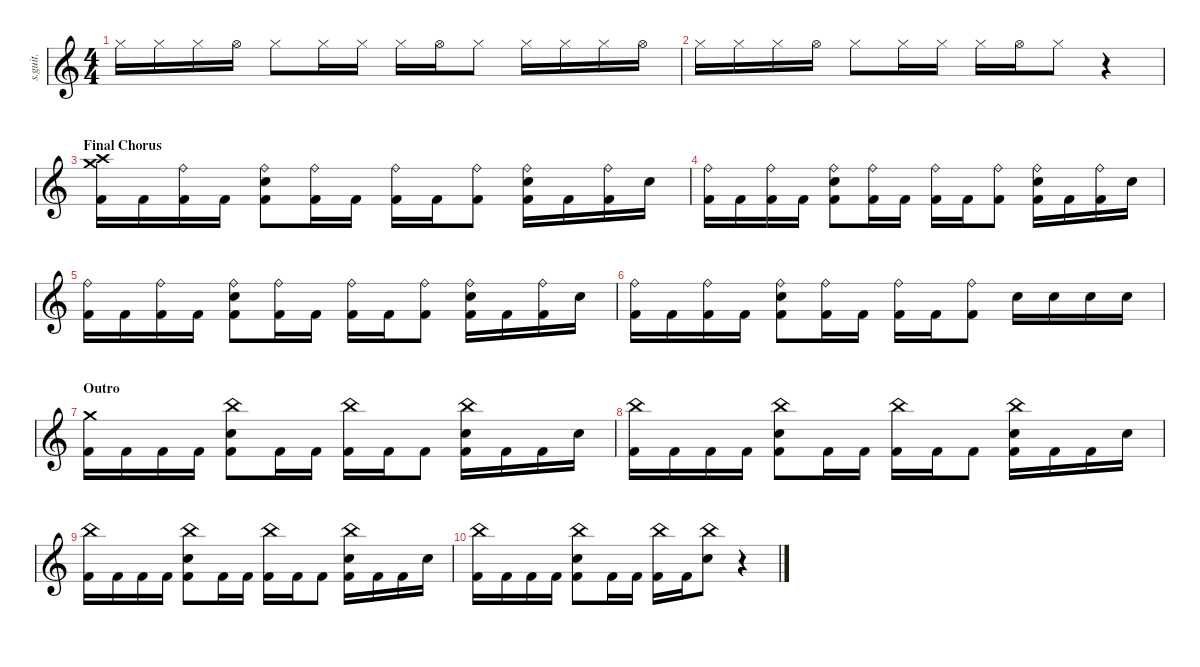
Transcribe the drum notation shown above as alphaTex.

\defaultSystemsLayout 4
\hideDynamics
\bracketExtendMode nobrackets
\track ("Mike Wengren" "s.guit.") {instrument percussion}
\staff {score}
\articulation defaults
\ts (4 4)
\tempo (90 hide)
\clef g2
\ks c "Hi-Hat (closed)".16{lyrics (0 "") lyrics (1 "") lyrics (2 "") lyrics (3 "") lyrics (4 "") dy ff} "Hi-Hat (closed)".16{lyrics (0 "") lyrics (1 "") lyrics (2 "") lyrics (3 "") lyrics (4 "")} "Hi-Hat (closed)".16{lyrics (0 "") lyrics (1 "") lyrics (2 "") lyrics (3 "") lyrics (4 "")} "Hi-Hat (open)".16{lyrics (0 "") lyrics (1 "") lyrics (2 "") lyrics (3 "") lyrics (4 "")} "Hi-Hat (closed)".8{lyrics (0 "") lyrics (1 "") lyrics (2 "") lyrics (3 "") lyrics (4 "")} "Hi-Hat (closed)".16{lyrics (0 "") lyrics (1 "") lyrics (2 "") lyrics (3 "") lyrics (4 "")} "Hi-Hat (closed)".16{lyrics (0 "") lyrics (1 "") lyrics (2 "") lyrics (3 "") lyrics (4 "")} "Hi-Hat (closed)".16{lyrics (0 "") lyrics (1 "") lyrics (2 "") lyrics (3 "") lyrics (4 "")} "Hi-Hat (open)".16{lyrics (0 "") lyrics (1 "") lyrics (2 "") lyrics (3 "") lyrics (4 "")} "Hi-Hat (closed)".8{lyrics (0 "") lyrics (1 "") lyrics (2 "") lyrics (3 "") lyrics (4 "")} "Hi-Hat (closed)".16{lyrics (0 "") lyrics (1 "") lyrics (2 "") lyrics (3 "") lyrics (4 "")} "Hi-Hat (closed)".16{lyrics (0 "") lyrics (1 "") lyrics (2 "") lyrics (3 "") lyrics (4 "")} "Hi-Hat (closed)".16{lyrics (0 "") lyrics (1 "") lyrics (2 "") lyrics (3 "") lyrics (4 "")} "Hi-Hat (open)".16{lyrics (0 "") lyrics (1 "") lyrics (2 "") lyrics (3 "") lyrics (4 "")}
|
"Hi-Hat (closed)".16{lyrics (0 "") lyrics (1 "") lyrics (2 "") lyrics (3 "") lyrics (4 "")} "Hi-Hat (closed)".16{lyrics (0 "") lyrics (1 "") lyrics (2 "") lyrics (3 "") lyrics (4 "")} "Hi-Hat (closed)".16{lyrics (0 "") lyrics (1 "") lyrics (2 "") lyrics (3 "") lyrics (4 "")} "Hi-Hat (open)".16{lyrics (0 "") lyrics (1 "") lyrics (2 "") lyrics (3 "") lyrics (4 "")} "Hi-Hat (closed)".8{lyrics (0 "") lyrics (1 "") lyrics (2 "") lyrics (3 "") lyrics (4 "")} "Hi-Hat (closed)".16{lyrics (0 "") lyrics (1 "") lyrics (2 "") lyrics (3 "") lyrics (4 "")} "Hi-Hat (closed)".16{lyrics (0 "") lyrics (1 "") lyrics (2 "") lyrics (3 "") lyrics (4 "")} "Hi-Hat (closed)".16{lyrics (0 "") lyrics (1 "") lyrics (2 "") lyrics (3 "") lyrics (4 "")} "Hi-Hat (open)".16{lyrics (0 "") lyrics (1 "") lyrics (2 "") lyrics (3 "") lyrics (4 "")} "Hi-Hat (closed)".8{lyrics (0 "") lyrics (1 "") lyrics (2 "") lyrics (3 "") lyrics (4 "")} r.4 |
\section ("" "Final Chorus")
("Crash high (hit)" "Kick (hit) 2" "Crash medium (hit)").16{lyrics (0 "") lyrics (1 "") lyrics (2 "") lyrics (3 "") lyrics (4 "")} "Kick (hit) 2".16{lyrics (0 "") lyrics (1 "") lyrics (2 "") lyrics (3 "") lyrics (4 "")} ("Ride (bell)" "Kick (hit) 2").16{lyrics (0 "") lyrics (1 "") lyrics (2 "") lyrics (3 "") lyrics (4 "")} "Kick (hit) 2".16{lyrics (0 "") lyrics (1 "") lyrics (2 "") lyrics (3 "") lyrics (4 "")} ("Ride (bell)" "Kick (hit) 2" "Snare (hit) 2").8{lyrics (0 "") lyrics (1 "") lyrics (2 "") lyrics (3 "") lyrics (4 "")} ("Ride (bell)" "Kick (hit) 2").16{lyrics (0 "") lyrics (1 "") lyrics (2 "") lyrics (3 "") lyrics (4 "")} "Kick (hit) 2".16{lyrics (0 "") lyrics (1 "") lyrics (2 "") lyrics (3 "") lyrics (4 "")} ("Ride (bell)" "Kick (hit) 2").16{lyrics (0 "") lyrics (1 "") lyrics (2 "") lyrics (3 "") lyrics (4 "")} "Kick (hit) 2".16{lyrics (0 "") lyrics (1 "") lyrics (2 "") lyrics (3 "") lyrics (4 "")} ("Ride (bell)" "Kick (hit) 2").8{lyrics (0 "") lyrics (1 "") lyrics (2 "") lyrics (3 "") lyrics (4 "")} ("Ride (bell)" "Kick (hit) 2" "Snare (hit) 2").16{lyrics (0 "") lyrics (1 "") lyrics (2 "") lyrics (3 "") lyrics (4 "")} "Kick (hit) 2".16{lyrics (0 "") lyrics (1 "") lyrics (2 "") lyrics (3 "") lyrics (4 "")} ("Ride (bell)" "Kick (hit) 2").16{lyrics (0 "") lyrics (1 "") lyrics (2 "") lyrics (3 "") lyrics (4 "")} "Snare (hit) 2".16{lyrics (0 "") lyrics (1 "") lyrics (2 "") lyrics (3 "") lyrics (4 "")} |
("Kick (hit) 2" "Ride (bell)").16{lyrics (0 "") lyrics (1 "") lyrics (2 "") lyrics (3 "") lyrics (4 "")} "Kick (hit) 2".16{lyrics (0 "") lyrics (1 "") lyrics (2 "") lyrics (3 "") lyrics (4 "")} ("Ride (bell)" "Kick (hit) 2").16{lyrics (0 "") lyrics (1 "") lyrics (2 "") lyrics (3 "") lyrics (4 "")} "Kick (hit) 2".16{lyrics (0 "") lyrics (1 "") lyrics (2 "") lyrics (3 "") lyrics (4 "")} ("Ride (bell)" "Kick (hit) 2" "Snare (hit) 2").8{lyrics (0 "") lyrics (1 "") lyrics (2 "") lyrics (3 "") lyrics (4 "")} ("Ride (bell)" "Kick (hit) 2").16{lyrics (0 "") lyrics (1 "") lyrics (2 "") lyrics (3 "") lyrics (4 "")} "Kick (hit) 2".16{lyrics (0 "") lyrics (1 "") lyrics (2 "") lyrics (3 "") lyrics (4 "")} ("Ride (bell)" "Kick (hit) 2").16{lyrics (0 "") lyrics (1 "") lyrics (2 "") lyrics (3 "") lyrics (4 "")} "Kick (hit) 2".16{lyrics (0 "") lyrics (1 "") lyrics (2 "") lyrics (3 "") lyrics (4 "")} ("Ride (bell)" "Kick (hit) 2").8{lyrics (0 "") lyrics (1 "") lyrics (2 "") lyrics (3 "") lyrics (4 "")} ("Ride (bell)" "Kick (hit) 2" "Snare (hit) 2").16{lyrics (0 "") lyrics (1 "") lyrics (2 "") lyrics (3 "") lyrics (4 "")} "Kick (hit) 2".16{lyrics (0 "") lyrics (1 "") lyrics (2 "") lyrics (3 "") lyrics (4 "")} ("Ride (bell)" "Kick (hit) 2").16{lyrics (0 "") lyrics (1 "") lyrics (2 "") lyrics (3 "") lyrics (4 "")} "Snare (hit) 2".16{lyrics (0 "") lyrics (1 "") lyrics (2 "") lyrics (3 "") lyrics (4 "")} |
("Kick (hit) 2" "Ride (bell)").16{lyrics (0 "") lyrics (1 "") lyrics (2 "") lyrics (3 "") lyrics (4 "")} "Kick (hit) 2".16{lyrics (0 "") lyrics (1 "") lyrics (2 "") lyrics (3 "") lyrics (4 "")} ("Ride (bell)" "Kick (hit) 2").16{lyrics (0 "") lyrics (1 "") lyrics (2 "") lyrics (3 "") lyrics (4 "")} "Kick (hit) 2".16{lyrics (0 "") lyrics (1 "") lyrics (2 "") lyrics (3 "") lyrics (4 "")} ("Ride (bell)" "Kick (hit) 2" "Snare (hit) 2").8{lyrics (0 "") lyrics (1 "") lyrics (2 "") lyrics (3 "") lyrics (4 "")} ("Ride (bell)" "Kick (hit) 2").16{lyrics (0 "") lyrics (1 "") lyrics (2 "") lyrics (3 "") lyrics (4 "")} "Kick (hit) 2".16{lyrics (0 "") lyrics (1 "") lyrics (2 "") lyrics (3 "") lyrics (4 "")} ("Ride (bell)" "Kick (hit) 2").16{lyrics (0 "") lyrics (1 "") lyrics (2 "") lyrics (3 "") lyrics (4 "")} "Kick (hit) 2".16{lyrics (0 "") lyrics (1 "") lyrics (2 "") lyrics (3 "") lyrics (4 "")} ("Ride (bell)" "Kick (hit) 2").8{lyrics (0 "") lyrics (1 "") lyrics (2 "") lyrics (3 "") lyrics (4 "")} ("Ride (bell)" "Kick (hit) 2" "Snare (hit) 2").16{lyrics (0 "") lyrics (1 "") lyrics (2 "") lyrics (3 "") lyrics (4 "")} "Kick (hit) 2".16{lyrics (0 "") lyrics (1 "") lyrics (2 "") lyrics (3 "") lyrics (4 "")} ("Ride (bell)" "Kick (hit) 2").16{lyrics (0 "") lyrics (1 "") lyrics (2 "") lyrics (3 "") lyrics (4 "")} "Snare (hit) 2".16{lyrics (0 "") lyrics (1 "") lyrics (2 "") lyrics (3 "") lyrics (4 "")} |
("Kick (hit) 2" "Ride (bell)").16{lyrics (0 "") lyrics (1 "") lyrics (2 "") lyrics (3 "") lyrics (4 "")} "Kick (hit) 2".16{lyrics (0 "") lyrics (1 "") lyrics (2 "") lyrics (3 "") lyrics (4 "")} ("Ride (bell)" "Kick (hit) 2").16{lyrics (0 "") lyrics (1 "") lyrics (2 "") lyrics (3 "") lyrics (4 "")} "Kick (hit) 2".16{lyrics (0 "") lyrics (1 "") lyrics (2 "") lyrics (3 "") lyrics (4 "")} ("Ride (bell)" "Kick (hit) 2" "Snare (hit) 2").8{lyrics (0 "") lyrics (1 "") lyrics (2 "") lyrics (3 "") lyrics (4 "")} ("Ride (bell)" "Kick (hit) 2").16{lyrics (0 "") lyrics (1 "") lyrics (2 "") lyrics (3 "") lyrics (4 "")} "Kick (hit) 2".16{lyrics (0 "") lyrics (1 "") lyrics (2 "") lyrics (3 "") lyrics (4 "")} ("Ride (bell)" "Kick (hit) 2").16{lyrics (0 "") lyrics (1 "") lyrics (2 "") lyrics (3 "") lyrics (4 "")} "Kick (hit) 2".16{lyrics (0 "") lyrics (1 "") lyrics (2 "") lyrics (3 "") lyrics (4 "")} ("Ride (bell)" "Kick (hit) 2").8{lyrics (0 "") lyrics (1 "") lyrics (2 "") lyrics (3 "") lyrics (4 "")} "Snare (hit) 2".16{lyrics (0 "") lyrics (1 "") lyrics (2 "") lyrics (3 "") lyrics (4 "")} "Snare (hit) 2".16{lyrics (0 "") lyrics (1 "") lyrics (2 "") lyrics (3 "") lyrics (4 "")} "Snare (hit) 2".16{lyrics (0 "") lyrics (1 "") lyrics (2 "") lyrics (3 "") lyrics (4 "")} "Snare (hit) 2".16{lyrics (0 "") lyrics (1 "") lyrics (2 "") lyrics (3 "") lyrics (4 "")} |
\section ("" "Outro")
("Kick (hit) 2" "Crash medium (hit)").16{lyrics (0 "") lyrics (1 "") lyrics (2 "") lyrics (3 "") lyrics (4 "")} "Kick (hit) 2".16{lyrics (0 "") lyrics (1 "") lyrics (2 "") lyrics (3 "") lyrics (4 "")} "Kick (hit) 2".16{lyrics (0 "") lyrics (1 "") lyrics (2 "") lyrics (3 "") lyrics (4 "")} "Kick (hit) 2".16{lyrics (0 "") lyrics (1 "") lyrics (2 "") lyrics (3 "") lyrics (4 "")} ("China (hit)" "Kick (hit) 2" "Snare (hit) 2").8{lyrics (0 "") lyrics (1 "") lyrics (2 "") lyrics (3 "") lyrics (4 "")} "Kick (hit) 2".16{lyrics (0 "") lyrics (1 "") lyrics (2 "") lyrics (3 "") lyrics (4 "")} "Kick (hit) 2".16{lyrics (0 "") lyrics (1 "") lyrics (2 "") lyrics (3 "") lyrics (4 "")} ("China (hit)" "Kick (hit) 2").16{lyrics (0 "") lyrics (1 "") lyrics (2 "") lyrics (3 "") lyrics (4 "")} "Kick (hit) 2".16{lyrics (0 "") lyrics (1 "") lyrics (2 "") lyrics (3 "") lyrics (4 "")} "Kick (hit) 2".8{lyrics (0 "") lyrics (1 "") lyrics (2 "") lyrics (3 "") lyrics (4 "")} ("China (hit)" "Kick (hit) 2" "Snare (hit) 2").16{lyrics (0 "") lyrics (1 "") lyrics (2 "") lyrics (3 "") lyrics (4 "")} "Kick (hit) 2".16{lyrics (0 "") lyrics (1 "") lyrics (2 "") lyrics (3 "") lyrics (4 "")} "Kick (hit) 2".16{lyrics (0 "") lyrics (1 "") lyrics (2 "") lyrics (3 "") lyrics (4 "")} "Snare (hit) 2".16{lyrics (0 "") lyrics (1 "") lyrics (2 "") lyrics (3 "") lyrics (4 "")} |
("China (hit)" "Kick (hit) 2").16{lyrics (0 "") lyrics (1 "") lyrics (2 "") lyrics (3 "") lyrics (4 "")} "Kick (hit) 2".16{lyrics (0 "") lyrics (1 "") lyrics (2 "") lyrics (3 "") lyrics (4 "")} "Kick (hit) 2".16{lyrics (0 "") lyrics (1 "") lyrics (2 "") lyrics (3 "") lyrics (4 "")} "Kick (hit) 2".16{lyrics (0 "") lyrics (1 "") lyrics (2 "") lyrics (3 "") lyrics (4 "")} ("China (hit)" "Kick (hit) 2" "Snare (hit) 2").8{lyrics (0 "") lyrics (1 "") lyrics (2 "") lyrics (3 "") lyrics (4 "")} "Kick (hit) 2".16{lyrics (0 "") lyrics (1 "") lyrics (2 "") lyrics (3 "") lyrics (4 "")} "Kick (hit) 2".16{lyrics (0 "") lyrics (1 "") lyrics (2 "") lyrics (3 "") lyrics (4 "")} ("China (hit)" "Kick (hit) 2").16{lyrics (0 "") lyrics (1 "") lyrics (2 "") lyrics (3 "") lyrics (4 "")} "Kick (hit) 2".16{lyrics (0 "") lyrics (1 "") lyrics (2 "") lyrics (3 "") lyrics (4 "")} "Kick (hit) 2".8{lyrics (0 "") lyrics (1 "") lyrics (2 "") lyrics (3 "") lyrics (4 "")} ("China (hit)" "Kick (hit) 2" "Snare (hit) 2").16{lyrics (0 "") lyrics (1 "") lyrics (2 "") lyrics (3 "") lyrics (4 "")} "Kick (hit) 2".16{lyrics (0 "") lyrics (1 "") lyrics (2 "") lyrics (3 "") lyrics (4 "")} "Kick (hit) 2".16{lyrics (0 "") lyrics (1 "") lyrics (2 "") lyrics (3 "") lyrics (4 "")} "Snare (hit) 2".16{lyrics (0 "") lyrics (1 "") lyrics (2 "") lyrics (3 "") lyrics (4 "")} |
("China (hit)" "Kick (hit) 2").16{lyrics (0 "") lyrics (1 "") lyrics (2 "") lyrics (3 "") lyrics (4 "")} "Kick (hit) 2".16{lyrics (0 "") lyrics (1 "") lyrics (2 "") lyrics (3 "") lyrics (4 "")} "Kick (hit) 2".16{lyrics (0 "") lyrics (1 "") lyrics (2 "") lyrics (3 "") lyrics (4 "")} "Kick (hit) 2".16{lyrics (0 "") lyrics (1 "") lyrics (2 "") lyrics (3 "") lyrics (4 "")} ("China (hit)" "Kick (hit) 2" "Snare (hit) 2").8{lyrics (0 "") lyrics (1 "") lyrics (2 "") lyrics (3 "") lyrics (4 "")} "Kick (hit) 2".16{lyrics (0 "") lyrics (1 "") lyrics (2 "") lyrics (3 "") lyrics (4 "")} "Kick (hit) 2".16{lyrics (0 "") lyrics (1 "") lyrics (2 "") lyrics (3 "") lyrics (4 "")} ("China (hit)" "Kick (hit) 2").16{lyrics (0 "") lyrics (1 "") lyrics (2 "") lyrics (3 "") lyrics (4 "")} "Kick (hit) 2".16{lyrics (0 "") lyrics (1 "") lyrics (2 "") lyrics (3 "") lyrics (4 "")} "Kick (hit) 2".8{lyrics (0 "") lyrics (1 "") lyrics (2 "") lyrics (3 "") lyrics (4 "")} ("China (hit)" "Kick (hit) 2" "Snare (hit) 2").16{lyrics (0 "") lyrics (1 "") lyrics (2 "") lyrics (3 "") lyrics (4 "")} "Kick (hit) 2".16{lyrics (0 "") lyrics (1 "") lyrics (2 "") lyrics (3 "") lyrics (4 "")} "Kick (hit) 2".16{lyrics (0 "") lyrics (1 "") lyrics (2 "") lyrics (3 "") lyrics (4 "")} "Snare (hit) 2".16{lyrics (0 "") lyrics (1 "") lyrics (2 "") lyrics (3 "") lyrics (4 "")} |
("China (hit)" "Kick (hit) 2").16{lyrics (0 "") lyrics (1 "") lyrics (2 "") lyrics (3 "") lyrics (4 "")} "Kick (hit) 2".16{lyrics (0 "") lyrics (1 "") lyrics (2 "") lyrics (3 "") lyrics (4 "")} "Kick (hit) 2".16{lyrics (0 "") lyrics (1 "") lyrics (2 "") lyrics (3 "") lyrics (4 "")} "Kick (hit) 2".16{lyrics (0 "") lyrics (1 "") lyrics (2 "") lyrics (3 "") lyrics (4 "")} ("China (hit)" "Kick (hit) 2" "Snare (hit) 2").8{lyrics (0 "") lyrics (1 "") lyrics (2 "") lyrics (3 "") lyrics (4 "")} "Kick (hit) 2".16{lyrics (0 "") lyrics (1 "") lyrics (2 "") lyrics (3 "") lyrics (4 "")} "Kick (hit) 2".16{lyrics (0 "") lyrics (1 "") lyrics (2 "") lyrics (3 "") lyrics (4 "")} ("China (hit)" "Kick (hit) 2").16{lyrics (0 "") lyrics (1 "") lyrics (2 "") lyrics (3 "") lyrics (4 "")} "Kick (hit) 2".16{lyrics (0 "") lyrics (1 "") lyrics (2 "") lyrics (3 "") lyrics (4 "")} ("China (choke)" "Snare (hit) 2").8{lyrics (0 "") lyrics (1 "") lyrics (2 "") lyrics (3 "") lyrics (4 "")} r.4
